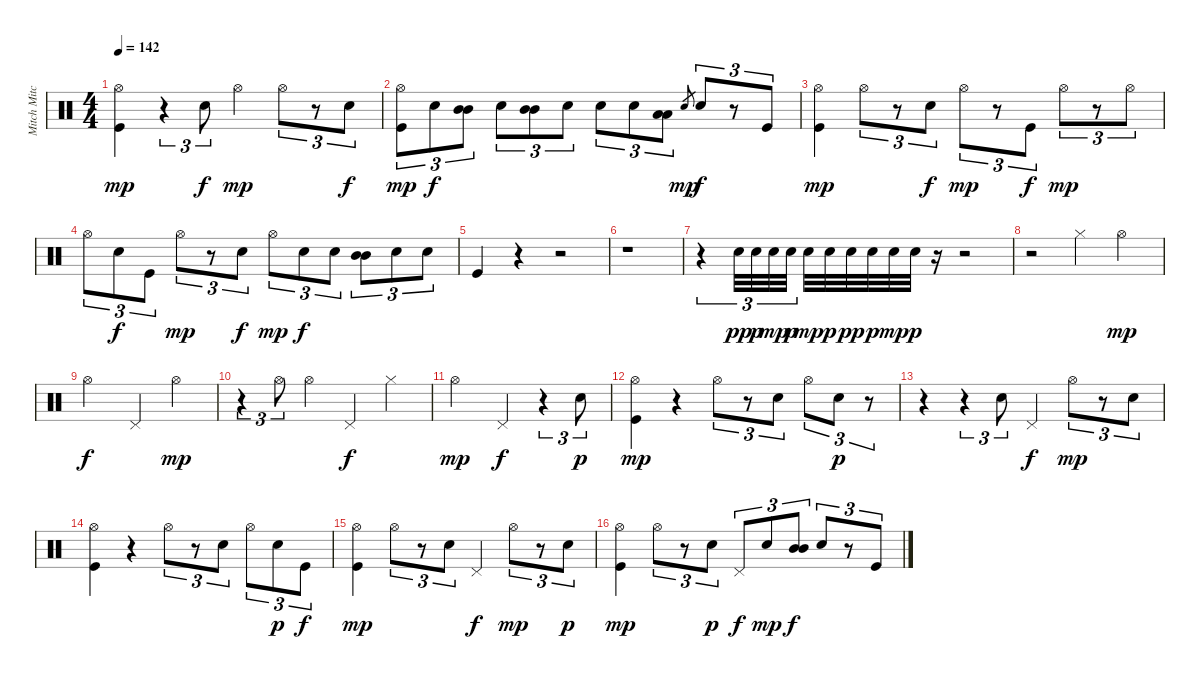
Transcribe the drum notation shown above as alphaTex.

\track ("Mitch Mitchell" "Mitch Mitc") {instrument percussion}
\staff {score}
\articulation defaults
\ts (4 4)
\tempo 142
\clef neutral
\ks c
("Hi-Hat (open)" "Kick (hit)").4{dy mp} r.4{tu (3 2)} "Electric Snare (hit)".8{tu (3 2) dy f} "Hi-Hat (open)".4{dy mp} "Hi-Hat (open)".8{tu (3 2)} r.8{tu (3 2)} "Electric Snare (hit)".8{tu (3 2) dy f} |
("Hi-Hat (open)" "Kick (hit)").8{tu (3 2) dy mp} "Electric Snare (hit)".8{tu (3 2) dy f} ("Mid Tom (hit)" "Mid Tom (hit)").8{tu (3 2)} "Electric Snare (hit)".8{tu (3 2)} ("Mid Tom (hit)" "Mid Tom (hit)").8{tu (3 2)} "Electric Snare (hit)".8{tu (3 2)} "Electric Snare (hit)".8{tu (3 2)} "Electric Snare (hit)".8{tu (3 2)} ("Low Tom (hit)" "Low Tom (hit)").8{tu (3 2)} "Electric Snare (hit)".8{gr dy mp} "Electric Snare (hit)".8{tu (3 2) dy f} r.8{tu (3 2)} "Kick (hit)".8{tu (3 2)} |
("Hi-Hat (open)" "Kick (hit)").4{dy mp} "Hi-Hat (open)".8{tu (3 2)} r.8{tu (3 2)} "Electric Snare (hit)".8{tu (3 2) dy f} "Hi-Hat (open)".8{tu (3 2) dy mp} r.8{tu (3 2)} "Kick (hit)".8{tu (3 2) dy f} "Hi-Hat (open)".8{tu (3 2) dy mp} r.8{tu (3 2)} "Hi-Hat (open)".8{tu (3 2)} |
"Hi-Hat (open)".8{tu (3 2)} "Electric Snare (hit)".8{tu (3 2) dy f} "Kick (hit)".8{tu (3 2)} "Hi-Hat (open)".8{tu (3 2) dy mp} r.8{tu (3 2)} "Electric Snare (hit)".8{tu (3 2) dy f} "Hi-Hat (open)".8{tu (3 2) dy mp} "Electric Snare (hit)".8{tu (3 2) dy f} "Electric Snare (hit)".8{tu (3 2)} ("Mid Tom (hit)" "Mid Tom (hit)").8{tu (3 2)} "Electric Snare (hit)".8{tu (3 2)} "Electric Snare (hit)".8{tu (3 2)} |
"Kick (hit)".4 r.4 r.2 |
r.1 |
r.4{tu (3 2)} "Electric Snare (hit)".32{tu (3 2) dy pp} "Electric Snare (hit)".32{tu (3 2) dy p} "Electric Snare (hit)".32{tu (3 2) dy mp} "Electric Snare (hit)".32{tu (3 2) dy p} "Electric Snare (hit)".32{dy mp} "Electric Snare (hit)".32{dy p} "Electric Snare (hit)".32{dy pp} "Electric Snare (hit)".32{dy p} "Electric Snare (hit)".32{dy mp} "Electric Snare (hit)".32{dy p} r.16 r.2 |
r.2 "Hi-Hat (closed)".4 "Hi-Hat (open)".4{dy mp} |
"Hi-Hat (open)".2{dy f} "Pedal Hi-Hat (hit)".4 "Hi-Hat (open)".4{dy mp} |
r.4{tu (3 2)} "Hi-Hat (open)".8{tu (3 2)} "Hi-Hat (open)".4 "Pedal Hi-Hat (hit)".4{dy f} "Hi-Hat (closed)".4 |
"Hi-Hat (open)".2{dy mp} "Pedal Hi-Hat (hit)".4{dy f} r.4{tu (3 2)} "Electric Snare (hit)".8{tu (3 2) dy p} |
("Hi-Hat (open)" "Kick (hit)").4{dy mp} r.4 "Hi-Hat (open)".8{tu (3 2)} r.8{tu (3 2)} "Electric Snare (hit)".8{tu (3 2)} "Hi-Hat (open)".8{tu (3 2)} "Electric Snare (hit)".8{tu (3 2) dy p} r.8{tu (3 2)} |
r.4 r.4{tu (3 2)} "Electric Snare (hit)".8{tu (3 2)} "Pedal Hi-Hat (hit)".4{dy f} "Hi-Hat (open)".8{tu (3 2) dy mp} r.8{tu (3 2)} "Electric Snare (hit)".8{tu (3 2)} |
("Hi-Hat (open)" "Kick (hit)").4 r.4 "Hi-Hat (open)".8{tu (3 2)} r.8{tu (3 2)} "Electric Snare (hit)".8{tu (3 2)} "Hi-Hat (open)".8{tu (3 2)} "Electric Snare (hit)".8{tu (3 2) dy p} "Kick (hit)".8{tu (3 2) dy f} |
("Hi-Hat (open)" "Kick (hit)").4{dy mp} "Hi-Hat (open)".8{tu (3 2)} r.8{tu (3 2)} "Electric Snare (hit)".8{tu (3 2)} "Pedal Hi-Hat (hit)".4{dy f} "Hi-Hat (open)".8{tu (3 2) dy mp} r.8{tu (3 2)} "Electric Snare (hit)".8{tu (3 2) dy p} |
("Hi-Hat (open)" "Kick (hit)").4{dy mp} "Hi-Hat (open)".8{tu (3 2)} r.8{tu (3 2)} "Electric Snare (hit)".8{tu (3 2) dy p} "Pedal Hi-Hat (hit)".8{tu (3 2) dy f} "Electric Snare (hit)".8{tu (3 2) dy mp} ("Mid Tom (hit)" "Mid Tom (hit)").8{tu (3 2) dy f} "Electric Snare (hit)".8{tu (3 2)} r.8{tu (3 2)} "Kick (hit)".8{tu (3 2)}
